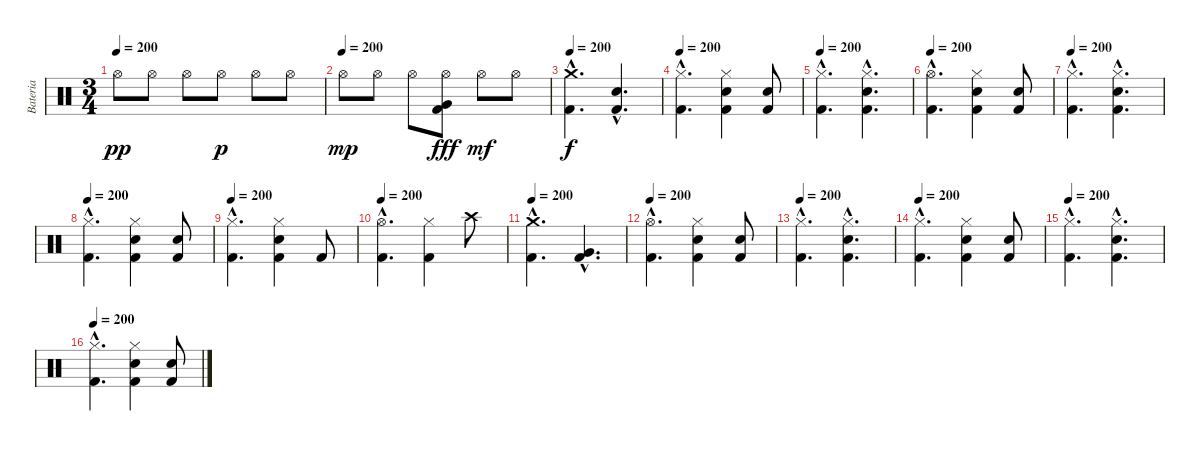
\track ("Bateria" "Bateria") {instrument percussion}
\staff {score}
\articulation defaults
\ts (3 4)
\tempo 200
\clef neutral
\ks c "Hi-Hat (open)".8{dy pp} "Hi-Hat (open)".8 "Hi-Hat (open)".8 "Hi-Hat (open)".8{dy p} "Hi-Hat (open)".8 "Hi-Hat (open)".8
|
\tempo (200)
"Hi-Hat (open)".8{dy mp} "Hi-Hat (open)".8 "Hi-Hat (open)".8 ("Hi-Hat (open)" "Very Low Tom (hit)" "Kick (hit) 2").8{dy fff} "Hi-Hat (open)".8{dy mf} "Hi-Hat (open)".8 |
\tempo 200
("Crash medium (hit)"{hac} "Kick (hit) 2"{hac}).4{d dy f} ("Electric Snare (hit)"{hac} "Kick (hit) 2"{hac}).4{d} |
\tempo 200
("Hi-Hat (closed)"{hac} "Kick (hit) 2"{hac}).4{d} ("Hi-Hat (closed)" "Electric Snare (hit)" "Kick (hit) 2").4 ("Electric Snare (hit)" "Kick (hit) 2").8 |
\tempo 200
("Hi-Hat (closed)"{hac} "Kick (hit) 2"{hac}).4{d} ("Hi-Hat (closed)"{hac} "Electric Snare (hit)"{hac} "Kick (hit) 2"{hac}).4{d} |
\tempo 200
("Hi-Hat (open)"{hac} "Kick (hit) 2"{hac}).4{d} ("Hi-Hat (closed)" "Electric Snare (hit)" "Kick (hit) 2").4 ("Electric Snare (hit)" "Kick (hit) 2").8 |
\tempo 200
("Hi-Hat (closed)"{hac} "Kick (hit) 2"{hac}).4{d} ("Hi-Hat (closed)"{hac} "Electric Snare (hit)"{hac} "Kick (hit) 2"{hac}).4{d} |
\tempo 200
("Hi-Hat (closed)"{hac} "Kick (hit) 2"{hac}).4{d} ("Hi-Hat (closed)" "Electric Snare (hit)" "Kick (hit) 2").4 ("Electric Snare (hit)" "Kick (hit) 2").8 |
\tempo 200
("Hi-Hat (closed)"{hac} "Kick (hit) 2"{hac}).4{d} ("Hi-Hat (closed)" "Electric Snare (hit)" "Kick (hit) 2").4 "Kick (hit) 2".8 |
\tempo 200
("Hi-Hat (open)"{hac} "Kick (hit) 2"{hac}).4{d} ("Hi-Hat (closed)" "Kick (hit) 2").4 "Crash high (hit)".8 |
\tempo 200
("Crash medium (hit)"{hac} "Kick (hit) 2"{hac}).4{d} ("Very Low Tom (hit)"{hac} "Kick (hit) 2"{hac}).4{d} |
\tempo 200
("Hi-Hat (open)"{hac} "Kick (hit) 2"{hac}).4{d} ("Hi-Hat (closed)" "Electric Snare (hit)" "Kick (hit) 2").4 ("Electric Snare (hit)" "Kick (hit) 2").8 |
\tempo 200
("Hi-Hat (closed)"{hac} "Kick (hit) 2"{hac}).4{d} ("Hi-Hat (closed)"{hac} "Electric Snare (hit)"{hac} "Kick (hit) 2"{hac}).4{d} |
\tempo 200
("Hi-Hat (closed)"{hac} "Kick (hit) 2"{hac}).4{d} ("Hi-Hat (closed)" "Electric Snare (hit)" "Kick (hit) 2").4 ("Electric Snare (hit)" "Kick (hit) 2").8 |
\tempo 200
("Hi-Hat (closed)"{hac} "Kick (hit) 2"{hac}).4{d} ("Hi-Hat (closed)"{hac} "Electric Snare (hit)"{hac} "Kick (hit) 2"{hac}).4{d} |
\tempo 200
("Hi-Hat (closed)"{hac} "Kick (hit) 2"{hac}).4{d} ("Hi-Hat (closed)" "Electric Snare (hit)" "Kick (hit) 2").4 ("Electric Snare (hit)" "Kick (hit) 2").8
